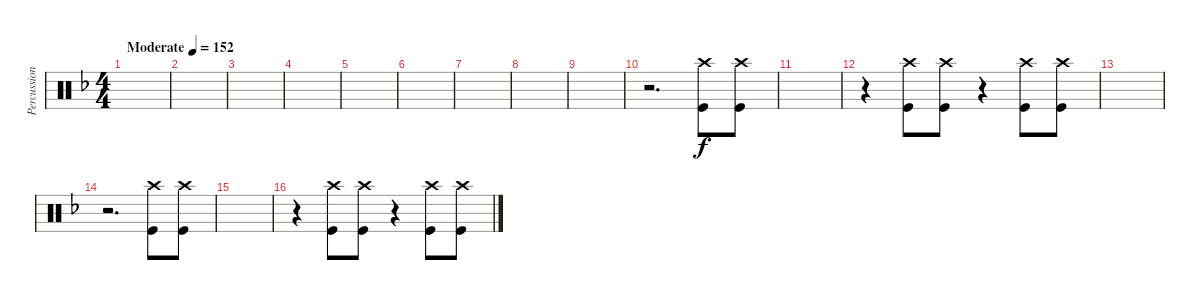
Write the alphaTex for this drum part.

\track ("Percussion" "Percussion") {instrument percussion}
\staff {score}
\articulation defaults
\ts (4 4)
\tempo (152 "Moderate")
\clef neutral
\ks f
|
|
|
|
|
|
|
|
|
r.2{d} ("Crash high (hit)" "Kick (hit)").8 ("Crash high (hit)" "Kick (hit)").8 |
|
r.4 ("Crash high (hit)" "Kick (hit)").8 ("Crash high (hit)" "Kick (hit)").8 r.4 ("Crash high (hit)" "Kick (hit)").8 ("Crash high (hit)" "Kick (hit)").8 |
|
r.2{d} ("Crash high (hit)" "Kick (hit)").8 ("Crash high (hit)" "Kick (hit)").8 |
|
r.4 ("Crash high (hit)" "Kick (hit)").8 ("Crash high (hit)" "Kick (hit)").8 r.4 ("Crash high (hit)" "Kick (hit)").8 ("Crash high (hit)" "Kick (hit)").8
